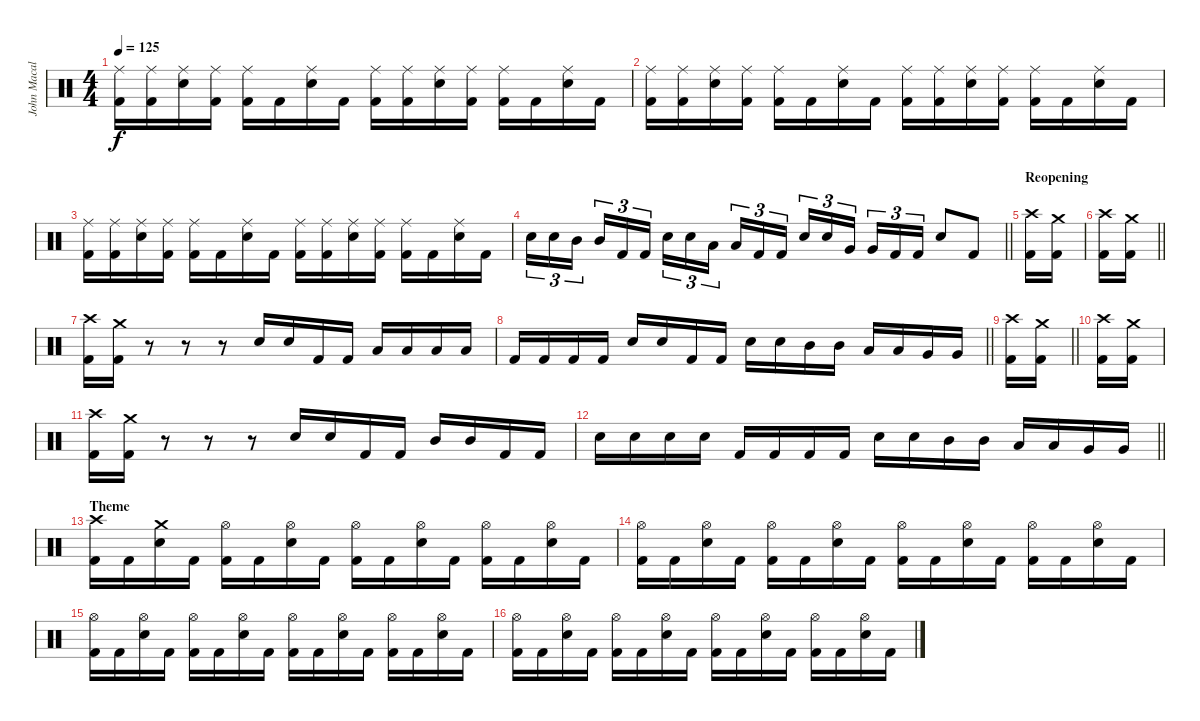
\track ("John Macaluso " "John Macal") {instrument percussion}
\staff {score}
\articulation defaults
\ts (4 4)
\tempo 125
\clef neutral
\ks c
("Ride (middle)" "Kick (hit) 2").16{dy f} ("Ride (middle)" "Kick (hit) 2").16 ("Ride (middle)" "Snare (hit) 2").16 ("Ride (middle)" "Kick (hit) 2").16 ("Ride (middle)" "Kick (hit) 2").16 "Kick (hit) 2".16 ("Ride (middle)" "Snare (hit) 2").16 "Kick (hit) 2".16 ("Ride (middle)" "Kick (hit) 2").16 ("Ride (middle)" "Kick (hit) 2").16 ("Ride (middle)" "Snare (hit) 2").16 ("Ride (middle)" "Kick (hit) 2").16 ("Ride (middle)" "Kick (hit) 2").16 "Kick (hit) 2".16 ("Ride (middle)" "Snare (hit) 2").16 "Kick (hit) 2".16 |
("Ride (middle)" "Kick (hit) 2").16 ("Ride (middle)" "Kick (hit) 2").16 ("Ride (middle)" "Snare (hit) 2").16 ("Ride (middle)" "Kick (hit) 2").16 ("Ride (middle)" "Kick (hit) 2").16 "Kick (hit) 2".16 ("Ride (middle)" "Snare (hit) 2").16 "Kick (hit) 2".16 ("Ride (middle)" "Kick (hit) 2").16 ("Ride (middle)" "Kick (hit) 2").16 ("Ride (middle)" "Snare (hit) 2").16 ("Ride (middle)" "Kick (hit) 2").16 ("Ride (middle)" "Kick (hit) 2").16 "Kick (hit) 2".16 ("Ride (middle)" "Snare (hit) 2").16 "Kick (hit) 2".16 |
("Ride (middle)" "Kick (hit) 2").16 ("Ride (middle)" "Kick (hit) 2").16 ("Ride (middle)" "Snare (hit) 2").16 ("Ride (middle)" "Kick (hit) 2").16 ("Ride (middle)" "Kick (hit) 2").16 "Kick (hit) 2".16 ("Ride (middle)" "Snare (hit) 2").16 "Kick (hit) 2".16 ("Ride (middle)" "Kick (hit) 2").16 ("Ride (middle)" "Kick (hit) 2").16 ("Ride (middle)" "Snare (hit) 2").16 ("Ride (middle)" "Kick (hit) 2").16 ("Ride (middle)" "Kick (hit) 2").16 "Kick (hit) 2".16 ("Ride (middle)" "Snare (hit) 2").16 "Kick (hit) 2".16 |
\barLineRight lightlight "Snare (hit) 2".16{tu (3 2)} "Snare (hit) 2".16{tu (3 2)} "Mid Tom (hit)".16{tu (3 2) beam splitsecondary} "Mid Tom (hit)".16{tu (3 2)} "Kick (hit) 2".16{tu (3 2)} "Kick (hit) 2".16{tu (3 2)} "Snare (hit) 2".16{tu (3 2)} "Snare (hit) 2".16{tu (3 2)} "Low Tom (hit)".16{tu (3 2) beam splitsecondary} "Low Tom (hit)".16{tu (3 2)} "Kick (hit) 2".16{tu (3 2)} "Kick (hit) 2".16{tu (3 2)} "Snare (hit) 2".16{tu (3 2)} "Snare (hit) 2".16{tu (3 2)} "Very Low Tom (hit)".16{tu (3 2) beam splitsecondary} "Very Low Tom (hit)".16{tu (3 2)} "Kick (hit) 2".16{tu (3 2)} "Kick (hit) 2".16{tu (3 2)} "Snare (hit) 2".8 "Kick (hit) 2".8
|
\section ("" "Reopening")
("Crash high (hit)" "Kick (hit) 2").16 ("Crash medium (hit)" "Kick (hit) 2").16 |
\barLineRight lightlight
("Crash high (hit)" "Kick (hit) 2").16 ("Crash medium (hit)" "Kick (hit) 2").16 |
("Crash high (hit)" "Kick (hit) 2").16 ("Crash medium (hit)" "Kick (hit) 2").16 r.8 r.8 r.8 "Snare (hit) 2".16 "Snare (hit) 2".16 "Kick (hit) 2".16 "Kick (hit) 2".16 "Low Tom (hit)".16 "Low Tom (hit)".16 "Low Tom (hit)".16 "Low Tom (hit)".16 |
\barLineRight lightlight "Kick (hit) 2".16 "Kick (hit) 2".16 "Kick (hit) 2".16 "Kick (hit) 2".16 "Snare (hit) 2".16 "Snare (hit) 2".16 "Kick (hit) 2".16 "Kick (hit) 2".16 "Snare (hit) 2".16 "Snare (hit) 2".16 "Mid Tom (hit)".16 "Mid Tom (hit)".16 "Low Tom (hit)".16 "Low Tom (hit)".16 "Very Low Tom (hit)".16 "Very Low Tom (hit)".16
|
\barLineRight lightlight
("Crash high (hit)" "Kick (hit) 2").16 ("Crash medium (hit)" "Kick (hit) 2").16 |
("Crash high (hit)" "Kick (hit) 2").16 ("Crash medium (hit)" "Kick (hit) 2").16 |
("Crash high (hit)" "Kick (hit) 2").16 ("Crash medium (hit)" "Kick (hit) 2").16 r.8 r.8 r.8 "Snare (hit) 2".16 "Snare (hit) 2".16 "Kick (hit) 2".16 "Kick (hit) 2".16 "Mid Tom (hit)".16 "Mid Tom (hit)".16 "Kick (hit) 2".16 "Kick (hit) 2".16 |
\barLineRight lightlight "Snare (hit) 2".16 "Snare (hit) 2".16 "Snare (hit) 2".16 "Snare (hit) 2".16 "Kick (hit) 2".16 "Kick (hit) 2".16 "Kick (hit) 2".16 "Kick (hit) 2".16 "Snare (hit) 2".16 "Snare (hit) 2".16 "Mid Tom (hit)".16 "Mid Tom (hit)".16 "Low Tom (hit)".16 "Low Tom (hit)".16 "Very Low Tom (hit)".16 "Very Low Tom (hit)".16
|
\section ("" "Theme")
("Crash high (hit)" "Kick (hit) 2").16 "Kick (hit) 2".16 ("Crash medium (hit)" "Snare (hit) 2").16 "Kick (hit) 2".16 ("Hi-Hat (open)" "Kick (hit) 2").16 "Kick (hit) 2".16 ("Hi-Hat (open)" "Snare (hit) 2").16 "Kick (hit) 2".16 ("Hi-Hat (open)" "Kick (hit) 2").16 "Kick (hit) 2".16 ("Hi-Hat (open)" "Snare (hit) 2").16 "Kick (hit) 2".16 ("Hi-Hat (open)" "Kick (hit) 2").16 "Kick (hit) 2".16 ("Hi-Hat (open)" "Snare (hit) 2").16 "Kick (hit) 2".16 |
("Hi-Hat (open)" "Kick (hit) 2").16 "Kick (hit) 2".16 ("Hi-Hat (open)" "Snare (hit) 2").16 "Kick (hit) 2".16 ("Hi-Hat (open)" "Kick (hit) 2").16 "Kick (hit) 2".16 ("Hi-Hat (open)" "Snare (hit) 2").16 "Kick (hit) 2".16 ("Hi-Hat (open)" "Kick (hit) 2").16 "Kick (hit) 2".16 ("Hi-Hat (open)" "Snare (hit) 2").16 "Kick (hit) 2".16 ("Hi-Hat (open)" "Kick (hit) 2").16 "Kick (hit) 2".16 ("Hi-Hat (open)" "Snare (hit) 2").16 "Kick (hit) 2".16 |
("Hi-Hat (open)" "Kick (hit) 2").16 "Kick (hit) 2".16 ("Hi-Hat (open)" "Snare (hit) 2").16 "Kick (hit) 2".16 ("Hi-Hat (open)" "Kick (hit) 2").16 "Kick (hit) 2".16 ("Hi-Hat (open)" "Snare (hit) 2").16 "Kick (hit) 2".16 ("Hi-Hat (open)" "Kick (hit) 2").16 "Kick (hit) 2".16 ("Hi-Hat (open)" "Snare (hit) 2").16 "Kick (hit) 2".16 ("Hi-Hat (open)" "Kick (hit) 2").16 "Kick (hit) 2".16 ("Hi-Hat (open)" "Snare (hit) 2").16 "Kick (hit) 2".16 |
("Hi-Hat (open)" "Kick (hit) 2").16 "Kick (hit) 2".16 ("Hi-Hat (open)" "Snare (hit) 2").16 "Kick (hit) 2".16 ("Hi-Hat (open)" "Kick (hit) 2").16 "Kick (hit) 2".16 ("Hi-Hat (open)" "Snare (hit) 2").16 "Kick (hit) 2".16 ("Hi-Hat (open)" "Kick (hit) 2").16 "Kick (hit) 2".16 ("Hi-Hat (open)" "Snare (hit) 2").16 "Kick (hit) 2".16 ("Hi-Hat (open)" "Kick (hit) 2").16 "Kick (hit) 2".16 ("Hi-Hat (open)" "Snare (hit) 2").16 "Kick (hit) 2".16
